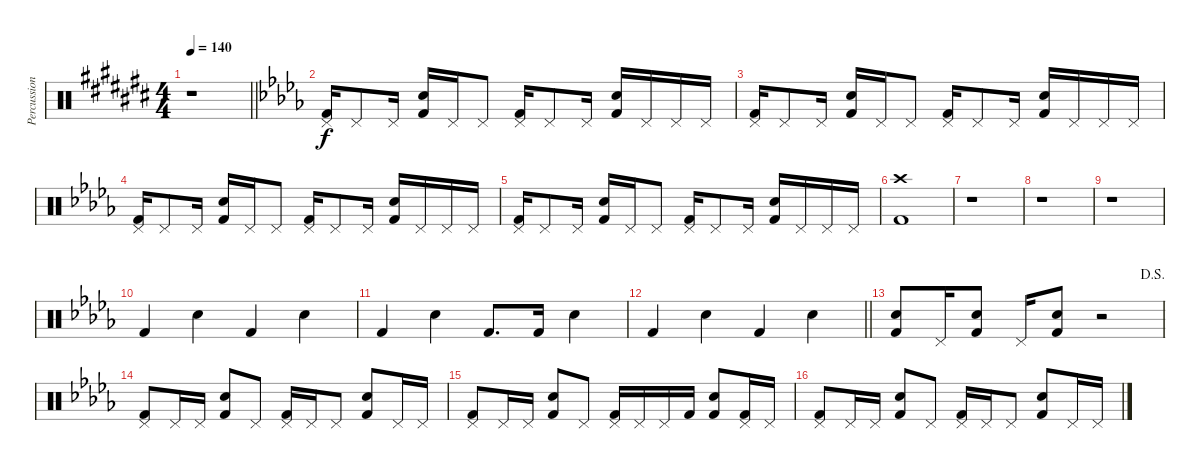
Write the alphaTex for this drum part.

\track ("Percussion" "Percussion") {instrument percussion}
\staff {score}
\articulation defaults
\ts (4 4)
\tempo 140
\clef neutral
\barLineRight lightlight
\ks c#
r.1{dy f} |
\section ("" "")
\ks db
("Pedal Hi-Hat (hit)" "Kick (hit) 2").16 "Pedal Hi-Hat (hit)".8 "Pedal Hi-Hat (hit)".16 ("Snare (hit) 2" "Kick (hit) 2").16 "Pedal Hi-Hat (hit)".16 "Pedal Hi-Hat (hit)".8 ("Pedal Hi-Hat (hit)" "Kick (hit) 2").16 "Pedal Hi-Hat (hit)".8 "Pedal Hi-Hat (hit)".16 ("Snare (hit) 2" "Kick (hit) 2").16 "Pedal Hi-Hat (hit)".16 "Pedal Hi-Hat (hit)".16 "Pedal Hi-Hat (hit)".16 |
("Pedal Hi-Hat (hit)" "Kick (hit) 2").16 "Pedal Hi-Hat (hit)".8 "Pedal Hi-Hat (hit)".16 ("Snare (hit) 2" "Kick (hit) 2").16 "Pedal Hi-Hat (hit)".16 "Pedal Hi-Hat (hit)".8 ("Pedal Hi-Hat (hit)" "Kick (hit) 2").16 "Pedal Hi-Hat (hit)".8 "Pedal Hi-Hat (hit)".16 ("Snare (hit) 2" "Kick (hit) 2").16 "Pedal Hi-Hat (hit)".16 "Pedal Hi-Hat (hit)".16 "Pedal Hi-Hat (hit)".16 |
("Pedal Hi-Hat (hit)" "Kick (hit) 2").16 "Pedal Hi-Hat (hit)".8 "Pedal Hi-Hat (hit)".16 ("Snare (hit) 2" "Kick (hit) 2").16 "Pedal Hi-Hat (hit)".16 "Pedal Hi-Hat (hit)".8 ("Pedal Hi-Hat (hit)" "Kick (hit) 2").16 "Pedal Hi-Hat (hit)".8 "Pedal Hi-Hat (hit)".16 ("Snare (hit) 2" "Kick (hit) 2").16 "Pedal Hi-Hat (hit)".16 "Pedal Hi-Hat (hit)".16 "Pedal Hi-Hat (hit)".16 |
("Pedal Hi-Hat (hit)" "Kick (hit) 2").16 "Pedal Hi-Hat (hit)".8 "Pedal Hi-Hat (hit)".16 ("Snare (hit) 2" "Kick (hit) 2").16 "Pedal Hi-Hat (hit)".16 "Pedal Hi-Hat (hit)".8 ("Pedal Hi-Hat (hit)" "Kick (hit) 2").16 "Pedal Hi-Hat (hit)".8 "Pedal Hi-Hat (hit)".16 ("Snare (hit) 2" "Kick (hit) 2").16 "Pedal Hi-Hat (hit)".16 "Pedal Hi-Hat (hit)".16 "Pedal Hi-Hat (hit)".16 |
("Crash high (hit)" "Kick (hit) 2").1 |
r.1 |
r.1 |
r.1 |
"Kick (hit) 2".4 "Snare (hit) 2".4 "Kick (hit) 2".4 "Snare (hit) 2".4 |
"Kick (hit) 2".4 "Snare (hit) 2".4 "Kick (hit) 2".8{d} "Kick (hit) 2".16 "Snare (hit) 2".4 |
\barLineRight lightlight "Kick (hit) 2".4 "Snare (hit) 2".4 "Kick (hit) 2".4 "Snare (hit) 2".4
|
\jump dalsegno
("Snare (hit) 2" "Kick (hit) 2").8 "Pedal Hi-Hat (hit)".16 ("Snare (hit) 2" "Kick (hit) 2").8 "Pedal Hi-Hat (hit)".16 ("Snare (hit) 2" "Kick (hit) 2").8 r.2 |
("Pedal Hi-Hat (hit)" "Kick (hit) 2").8 "Pedal Hi-Hat (hit)".16 "Pedal Hi-Hat (hit)".16 ("Snare (hit) 2" "Kick (hit) 2").8 "Pedal Hi-Hat (hit)".8 ("Pedal Hi-Hat (hit)" "Kick (hit) 2").16 "Pedal Hi-Hat (hit)".16 "Pedal Hi-Hat (hit)".8 ("Snare (hit) 2" "Kick (hit) 2").8 "Pedal Hi-Hat (hit)".16 "Pedal Hi-Hat (hit)".16 |
("Pedal Hi-Hat (hit)" "Kick (hit) 2").8 "Pedal Hi-Hat (hit)".16 "Pedal Hi-Hat (hit)".16 ("Snare (hit) 2" "Kick (hit) 2").8 "Pedal Hi-Hat (hit)".8 ("Pedal Hi-Hat (hit)" "Kick (hit) 2").16 "Pedal Hi-Hat (hit)".16 "Pedal Hi-Hat (hit)".16 "Kick (hit) 2".16 ("Snare (hit) 2" "Kick (hit) 2").8 ("Pedal Hi-Hat (hit)" "Kick (hit) 2").16 "Pedal Hi-Hat (hit)".16 |
("Pedal Hi-Hat (hit)" "Kick (hit) 2").8 "Pedal Hi-Hat (hit)".16 "Pedal Hi-Hat (hit)".16 ("Snare (hit) 2" "Kick (hit) 2").8 "Pedal Hi-Hat (hit)".8 ("Pedal Hi-Hat (hit)" "Kick (hit) 2").16 "Pedal Hi-Hat (hit)".16 "Pedal Hi-Hat (hit)".8 ("Snare (hit) 2" "Kick (hit) 2").8 "Pedal Hi-Hat (hit)".16 "Pedal Hi-Hat (hit)".16
